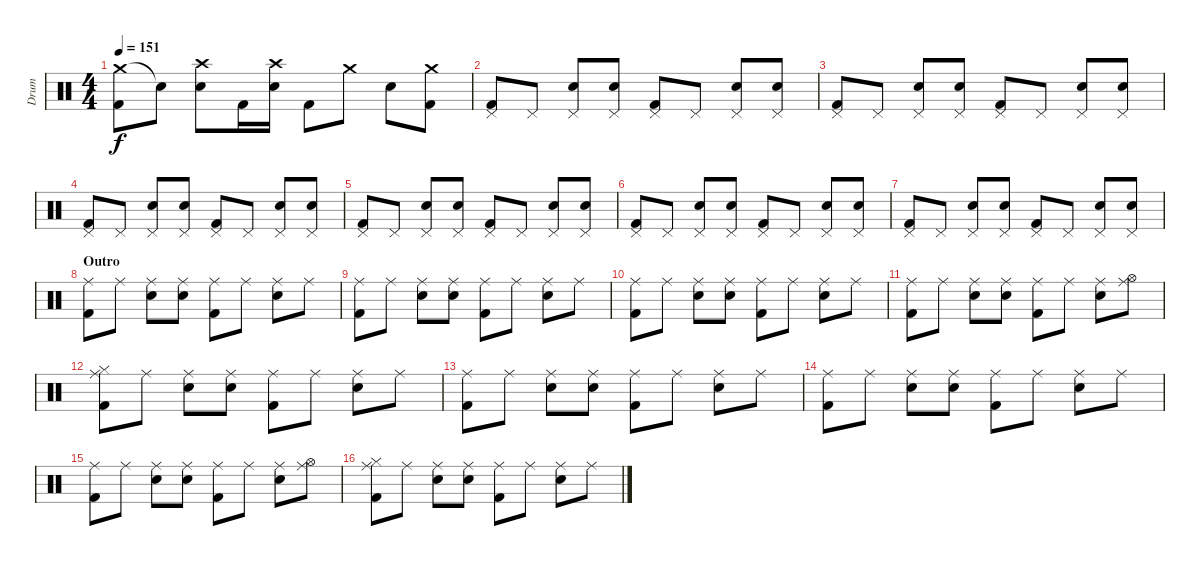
\track ("Drum" "Drum") {instrument percussion}
\staff {score}
\articulation defaults
\ts (4 4)
\tempo 151
\clef neutral
\ks c
("Crash medium (hit)" "Kick (hit) 2").8{dy f} "Snare (hit)"{t}.8 ("Crash high (hit)" "Electric Snare (hit)").8 "Kick (hit) 2".16 ("Crash high (hit)" "Electric Snare (hit)").16 "Kick (hit) 2".8 "Crash medium (hit)".8 "Electric Snare (hit)".8 ("Crash medium (hit)" "Kick (hit) 2").8 |
("Pedal Hi-Hat (hit)" "Kick (hit) 2").8 "Pedal Hi-Hat (hit)".8 ("Pedal Hi-Hat (hit)" "Electric Snare (hit)").8 ("Pedal Hi-Hat (hit)" "Electric Snare (hit)").8 ("Pedal Hi-Hat (hit)" "Kick (hit) 2").8 "Pedal Hi-Hat (hit)".8 ("Pedal Hi-Hat (hit)" "Electric Snare (hit)").8 ("Pedal Hi-Hat (hit)" "Electric Snare (hit)").8 |
("Pedal Hi-Hat (hit)" "Kick (hit) 2").8 "Pedal Hi-Hat (hit)".8 ("Pedal Hi-Hat (hit)" "Electric Snare (hit)").8 ("Pedal Hi-Hat (hit)" "Electric Snare (hit)").8 ("Pedal Hi-Hat (hit)" "Kick (hit) 2").8 "Pedal Hi-Hat (hit)".8 ("Pedal Hi-Hat (hit)" "Electric Snare (hit)").8 ("Pedal Hi-Hat (hit)" "Electric Snare (hit)").8 |
("Pedal Hi-Hat (hit)" "Kick (hit) 2").8 "Pedal Hi-Hat (hit)".8 ("Pedal Hi-Hat (hit)" "Electric Snare (hit)").8 ("Pedal Hi-Hat (hit)" "Electric Snare (hit)").8 ("Pedal Hi-Hat (hit)" "Kick (hit) 2").8 "Pedal Hi-Hat (hit)".8 ("Pedal Hi-Hat (hit)" "Electric Snare (hit)").8 ("Pedal Hi-Hat (hit)" "Electric Snare (hit)").8 |
("Pedal Hi-Hat (hit)" "Kick (hit) 2").8 "Pedal Hi-Hat (hit)".8 ("Pedal Hi-Hat (hit)" "Electric Snare (hit)").8 ("Pedal Hi-Hat (hit)" "Electric Snare (hit)").8 ("Pedal Hi-Hat (hit)" "Kick (hit) 2").8 "Pedal Hi-Hat (hit)".8 ("Pedal Hi-Hat (hit)" "Electric Snare (hit)").8 ("Pedal Hi-Hat (hit)" "Electric Snare (hit)").8 |
("Pedal Hi-Hat (hit)" "Kick (hit) 2").8 "Pedal Hi-Hat (hit)".8 ("Pedal Hi-Hat (hit)" "Electric Snare (hit)").8 ("Pedal Hi-Hat (hit)" "Electric Snare (hit)").8 ("Pedal Hi-Hat (hit)" "Kick (hit) 2").8 "Pedal Hi-Hat (hit)".8 ("Pedal Hi-Hat (hit)" "Electric Snare (hit)").8 ("Pedal Hi-Hat (hit)" "Electric Snare (hit)").8 |
("Pedal Hi-Hat (hit)" "Kick (hit) 2").8 "Pedal Hi-Hat (hit)".8 ("Pedal Hi-Hat (hit)" "Electric Snare (hit)").8 ("Pedal Hi-Hat (hit)" "Electric Snare (hit)").8 ("Pedal Hi-Hat (hit)" "Kick (hit) 2").8 "Pedal Hi-Hat (hit)".8 ("Pedal Hi-Hat (hit)" "Electric Snare (hit)").8 ("Pedal Hi-Hat (hit)" "Electric Snare (hit)").8 |
\section ("" "Outro")
("Ride (middle)" "Kick (hit) 2").8 "Ride (middle)".8 ("Ride (middle)" "Electric Snare (hit)").8 ("Ride (middle)" "Electric Snare (hit)").8 ("Ride (middle)" "Kick (hit) 2").8 "Ride (middle)".8 ("Ride (middle)" "Electric Snare (hit)").8 "Ride (middle)".8 |
("Ride (middle)" "Kick (hit) 2").8 "Ride (middle)".8 ("Ride (middle)" "Electric Snare (hit)").8 ("Ride (middle)" "Electric Snare (hit)").8 ("Ride (middle)" "Kick (hit) 2").8 "Ride (middle)".8 ("Ride (middle)" "Electric Snare (hit)").8 "Ride (middle)".8 |
("Ride (middle)" "Kick (hit) 2").8 "Ride (middle)".8 ("Ride (middle)" "Electric Snare (hit)").8 ("Ride (middle)" "Electric Snare (hit)").8 ("Ride (middle)" "Kick (hit) 2").8 "Ride (middle)".8 ("Ride (middle)" "Electric Snare (hit)").8 "Ride (middle)".8 |
("Ride (middle)" "Kick (hit) 2").8 "Ride (middle)".8 ("Ride (middle)" "Electric Snare (hit)").8 ("Ride (middle)" "Electric Snare (hit)").8 ("Ride (middle)" "Kick (hit) 2").8 "Ride (middle)".8 ("Ride (middle)" "Electric Snare (hit)").8 ("Ride (middle)" "Hi-Hat (open)").8 |
("Ride (middle)" "Hi-Hat (closed)" "Kick (hit) 2").8 "Ride (middle)".8 ("Ride (middle)" "Electric Snare (hit)").8 ("Ride (middle)" "Electric Snare (hit)").8 ("Ride (middle)" "Kick (hit) 2").8 "Ride (middle)".8 ("Ride (middle)" "Electric Snare (hit)").8 "Ride (middle)".8 |
("Ride (middle)" "Kick (hit) 2").8 "Ride (middle)".8 ("Ride (middle)" "Electric Snare (hit)").8 ("Ride (middle)" "Electric Snare (hit)").8 ("Ride (middle)" "Kick (hit) 2").8 "Ride (middle)".8 ("Ride (middle)" "Electric Snare (hit)").8 "Ride (middle)".8 |
("Ride (middle)" "Kick (hit) 2").8 "Ride (middle)".8 ("Ride (middle)" "Electric Snare (hit)").8 ("Ride (middle)" "Electric Snare (hit)").8 ("Ride (middle)" "Kick (hit) 2").8 "Ride (middle)".8 ("Ride (middle)" "Electric Snare (hit)").8 "Ride (middle)".8 |
("Ride (middle)" "Kick (hit) 2").8 "Ride (middle)".8 ("Ride (middle)" "Electric Snare (hit)").8 ("Ride (middle)" "Electric Snare (hit)").8 ("Ride (middle)" "Kick (hit) 2").8 "Ride (middle)".8 ("Ride (middle)" "Electric Snare (hit)").8 ("Ride (middle)" "Hi-Hat (open)").8 |
("Ride (middle)" "Hi-Hat (closed)" "Kick (hit) 2").8 "Ride (middle)".8 ("Ride (middle)" "Electric Snare (hit)").8 ("Ride (middle)" "Electric Snare (hit)").8 ("Ride (middle)" "Kick (hit) 2").8 "Ride (middle)".8 ("Ride (middle)" "Electric Snare (hit)").8 "Ride (middle)".8
